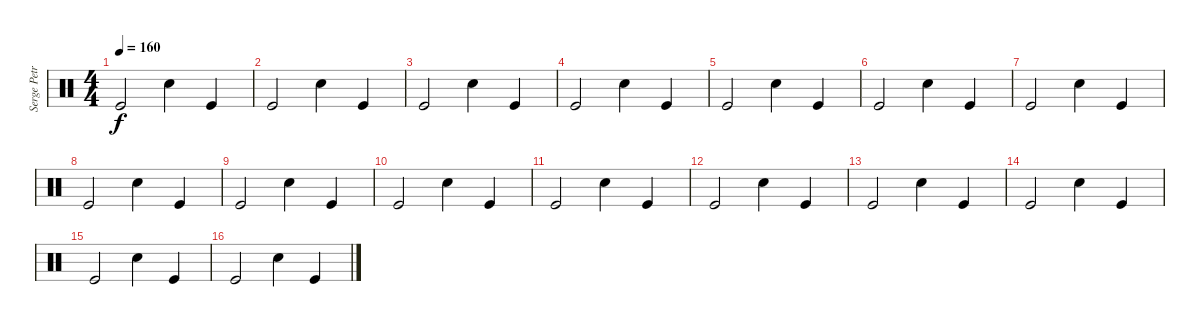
\track ("Serge Petrone" "Serge Petr") {instrument percussion}
\staff {score}
\articulation defaults
\ts (4 4)
\tempo 160
\clef neutral
\ks c "Kick (hit)".2{dy f} "Snare (hit) 2".4 "Kick (hit)".4
|
"Kick (hit)".2 "Snare (hit) 2".4 "Kick (hit)".4 |
"Kick (hit)".2 "Snare (hit) 2".4 "Kick (hit)".4 |
"Kick (hit)".2 "Snare (hit) 2".4 "Kick (hit)".4 |
"Kick (hit)".2 "Snare (hit) 2".4 "Kick (hit)".4 |
"Kick (hit)".2 "Snare (hit) 2".4 "Kick (hit)".4 |
"Kick (hit)".2 "Snare (hit) 2".4 "Kick (hit)".4 |
"Kick (hit)".2 "Snare (hit) 2".4 "Kick (hit)".4 |
"Kick (hit)".2 "Snare (hit) 2".4 "Kick (hit)".4 |
"Kick (hit)".2 "Snare (hit) 2".4 "Kick (hit)".4 |
"Kick (hit)".2 "Snare (hit) 2".4 "Kick (hit)".4 |
"Kick (hit)".2 "Snare (hit) 2".4 "Kick (hit)".4 |
"Kick (hit)".2 "Snare (hit) 2".4 "Kick (hit)".4 |
"Kick (hit)".2 "Snare (hit) 2".4 "Kick (hit)".4 |
"Kick (hit)".2 "Snare (hit) 2".4 "Kick (hit)".4 |
"Kick (hit)".2 "Snare (hit) 2".4 "Kick (hit)".4
